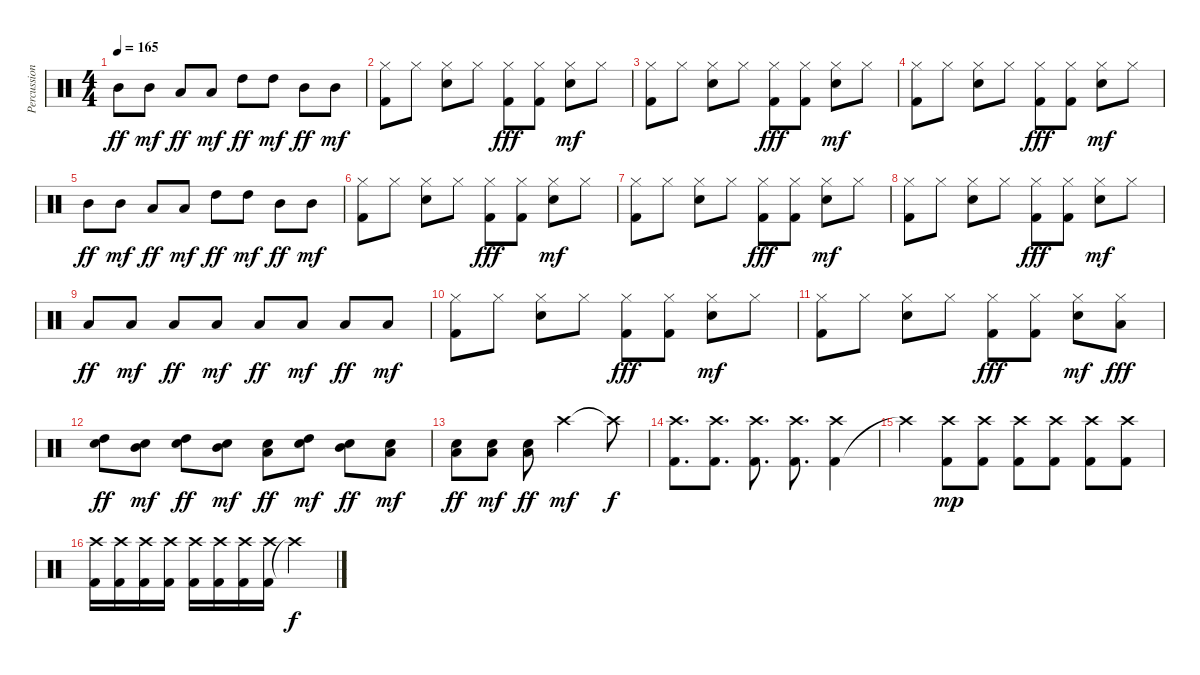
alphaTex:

\track ("Percussion" "Percussion") {instrument percussion}
\staff {score}
\articulation defaults
\ts (4 4)
\tempo 165
\clef neutral
\ks c "Mid Tom (hit)".8{dy ff} "Mid Tom (hit)".8{dy mf} "Low Tom (hit)".8{dy ff} "Low Tom (hit)".8{dy mf} "High Tom (hit)".8{dy ff} "High Tom (hit)".8{dy mf} "Mid Tom (hit)".8{dy ff} "Mid Tom (hit)".8{dy mf}
|
("Kick (hit) 2" "Hi-Hat (closed)").8 "Hi-Hat (closed)".8 ("Hi-Hat (closed)" "Electric Snare (hit)").8 "Hi-Hat (closed)".8 ("Hi-Hat (closed)" "Kick (hit) 2").8{dy fff} ("Hi-Hat (closed)" "Kick (hit) 2").8 ("Hi-Hat (closed)" "Electric Snare (hit)").8{dy mf} "Hi-Hat (closed)".8 |
("Kick (hit) 2" "Hi-Hat (closed)").8 "Hi-Hat (closed)".8 ("Hi-Hat (closed)" "Electric Snare (hit)").8 "Hi-Hat (closed)".8 ("Hi-Hat (closed)" "Kick (hit) 2").8{dy fff} ("Hi-Hat (closed)" "Kick (hit) 2").8 ("Hi-Hat (closed)" "Electric Snare (hit)").8{dy mf} "Hi-Hat (closed)".8 |
("Kick (hit) 2" "Hi-Hat (closed)").8 "Hi-Hat (closed)".8 ("Hi-Hat (closed)" "Electric Snare (hit)").8 "Hi-Hat (closed)".8 ("Hi-Hat (closed)" "Kick (hit) 2").8{dy fff} ("Hi-Hat (closed)" "Kick (hit) 2").8 ("Hi-Hat (closed)" "Electric Snare (hit)").8{dy mf} "Hi-Hat (closed)".8 |
"Mid Tom (hit)".8{dy ff} "Mid Tom (hit)".8{dy mf} "Low Tom (hit)".8{dy ff} "Low Tom (hit)".8{dy mf} "High Tom (hit)".8{dy ff} "High Tom (hit)".8{dy mf} "Mid Tom (hit)".8{dy ff} "Mid Tom (hit)".8{dy mf} |
("Kick (hit) 2" "Hi-Hat (closed)").8 "Hi-Hat (closed)".8 ("Hi-Hat (closed)" "Electric Snare (hit)").8 "Hi-Hat (closed)".8 ("Hi-Hat (closed)" "Kick (hit) 2").8{dy fff} ("Hi-Hat (closed)" "Kick (hit) 2").8 ("Hi-Hat (closed)" "Electric Snare (hit)").8{dy mf} "Hi-Hat (closed)".8 |
("Kick (hit) 2" "Hi-Hat (closed)").8 "Hi-Hat (closed)".8 ("Hi-Hat (closed)" "Electric Snare (hit)").8 "Hi-Hat (closed)".8 ("Hi-Hat (closed)" "Kick (hit) 2").8{dy fff} ("Hi-Hat (closed)" "Kick (hit) 2").8 ("Hi-Hat (closed)" "Electric Snare (hit)").8{dy mf} "Hi-Hat (closed)".8 |
("Kick (hit) 2" "Hi-Hat (closed)").8 "Hi-Hat (closed)".8 ("Hi-Hat (closed)" "Electric Snare (hit)").8 "Hi-Hat (closed)".8 ("Hi-Hat (closed)" "Kick (hit) 2").8{dy fff} ("Hi-Hat (closed)" "Kick (hit) 2").8 ("Hi-Hat (closed)" "Electric Snare (hit)").8{dy mf} "Hi-Hat (closed)".8 |
"Low Tom (hit)".8{dy ff} "Low Tom (hit)".8{dy mf} "Low Tom (hit)".8{dy ff} "Low Tom (hit)".8{dy mf} "Low Tom (hit)".8{dy ff} "Low Tom (hit)".8{dy mf} "Low Tom (hit)".8{dy ff} "Low Tom (hit)".8{dy mf} |
("Kick (hit) 2" "Hi-Hat (closed)").8 "Hi-Hat (closed)".8 ("Hi-Hat (closed)" "Electric Snare (hit)").8 "Hi-Hat (closed)".8 ("Hi-Hat (closed)" "Kick (hit) 2").8{dy fff} ("Hi-Hat (closed)" "Kick (hit) 2").8 ("Hi-Hat (closed)" "Electric Snare (hit)").8{dy mf} "Hi-Hat (closed)".8 |
("Kick (hit) 2" "Hi-Hat (closed)").8 "Hi-Hat (closed)".8 ("Hi-Hat (closed)" "Electric Snare (hit)").8 "Hi-Hat (closed)".8 ("Hi-Hat (closed)" "Kick (hit) 2").8{dy fff} ("Hi-Hat (closed)" "Kick (hit) 2").8 ("Hi-Hat (closed)" "Electric Snare (hit)").8{dy mf} ("Hi-Hat (closed)" "Low Tom (hit)").8{dy fff} |
("Electric Snare (hit)" "High Tom (hit)").8{dy ff} ("Electric Snare (hit)" "Mid Tom (hit)").8{dy mf} ("Electric Snare (hit)" "High Tom (hit)").8{dy ff} ("Electric Snare (hit)" "Mid Tom (hit)").8{dy mf} ("Electric Snare (hit)" "Low Tom (hit)").8{dy ff} ("Electric Snare (hit)" "High Tom (hit)").8{dy mf} ("Electric Snare (hit)" "Mid Tom (hit)").8{dy ff} ("Electric Snare (hit)" "Low Tom (hit)").8{dy mf} |
("Electric Snare (hit)" "Low Tom (hit)").8{dy ff} ("Electric Snare (hit)" "Low Tom (hit)").8{dy mf} ("Electric Snare (hit)" "Low Tom (hit)").8{dy ff} "Crash high (hit)".2{dy mf} "Crash high (hit)"{t}.8{dy f} |
("Kick (hit) 2" "Crash high (hit)").8{d} ("Kick (hit) 2" "Crash high (hit)").8{d} ("Kick (hit) 2" "Crash high (hit)").8{d} ("Kick (hit) 2" "Crash high (hit)").8{d} ("Kick (hit) 2" "Crash high (hit)").4 |
"Crash high (hit)"{t}.4 ("Kick (hit) 2" "Crash high (hit)").8{dy mp} ("Kick (hit) 2" "Crash high (hit)").8 ("Kick (hit) 2" "Crash high (hit)").8 ("Kick (hit) 2" "Crash high (hit)").8 ("Kick (hit) 2" "Crash high (hit)").8 ("Kick (hit) 2" "Crash high (hit)").8 |
("Kick (hit) 2" "Crash high (hit)").16 ("Kick (hit) 2" "Crash high (hit)").16 ("Kick (hit) 2" "Crash high (hit)").16 ("Kick (hit) 2" "Crash high (hit)").16 ("Kick (hit) 2" "Crash high (hit)").16 ("Kick (hit) 2" "Crash high (hit)").16 ("Kick (hit) 2" "Crash high (hit)").16 ("Kick (hit) 2" "Crash high (hit)").16 "Crash high (hit)"{t}.2{dy f}
